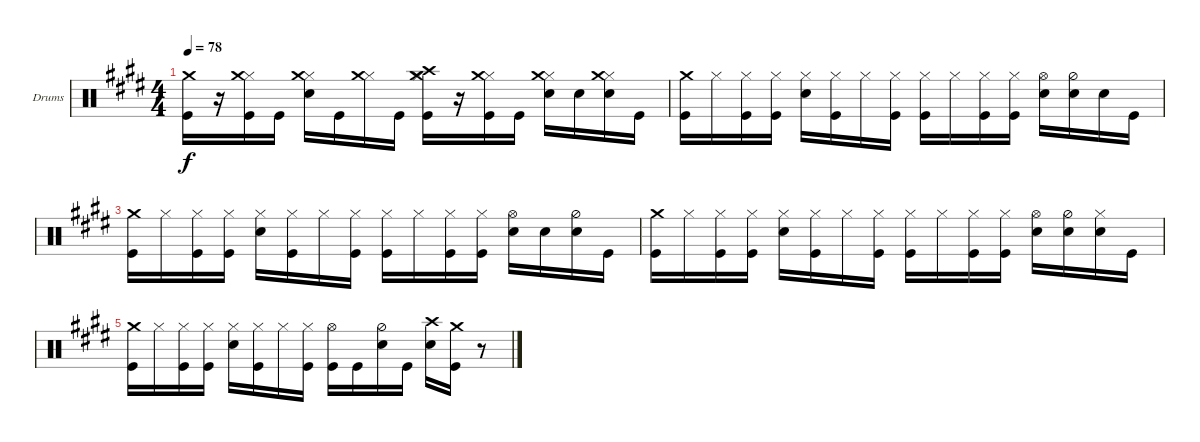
\bracketExtendMode nobrackets
\firstSystemTrackNameOrientation horizontal
\otherSystemsTrackNameOrientation horizontal
\defaultBarNumberDisplay FirstOfSystem
\track ("Drumkit" "Drums") {instrument percussion}
\staff {score}
\articulation defaults
\ts (4 4)
\tempo 78
\clef neutral
\ks c#minor
("Crash medium (hit)" "Kick (hit)").16{dy f} r.16 ("Hi-Hat (closed)" "Kick (hit)" "Crash medium (hit)").16 "Kick (hit)".16 ("Hi-Hat (closed)" "Snare (hit) 2" "Crash medium (hit)").16 "Kick (hit)".16 ("Hi-Hat (closed)" "Crash medium (hit)").16 "Kick (hit)".16 ("Hi-Hat (closed)" "Kick (hit)" "Crash high (hit)" "Crash medium (hit)").16 r.16 ("Hi-Hat (closed)" "Kick (hit)" "Crash medium (hit)").16 "Kick (hit)".16 ("Hi-Hat (closed)" "Snare (hit) 2" "Crash medium (hit)").16 "Snare (hit) 2".16 ("Hi-Hat (closed)" "Snare (hit) 2" "Crash medium (hit)").16 "Kick (hit)".16 |
("Crash medium (hit)" "Kick (hit)").16 "Hi-Hat (closed)".16 ("Hi-Hat (closed)" "Kick (hit)").16 ("Hi-Hat (closed)" "Kick (hit)").16 ("Hi-Hat (closed)" "Snare (hit) 2").16 ("Hi-Hat (closed)" "Kick (hit)").16 "Hi-Hat (closed)".16 ("Hi-Hat (closed)" "Kick (hit)").16 ("Hi-Hat (closed)" "Kick (hit)").16 "Hi-Hat (closed)".16 ("Hi-Hat (closed)" "Kick (hit)").16 ("Hi-Hat (closed)" "Kick (hit)").16 ("Hi-Hat (open)" "Snare (hit) 2").16 ("Hi-Hat (half)" "Snare (hit) 2").16 "Snare (hit) 2".16 "Kick (hit)".16 |
("Crash medium (hit)" "Kick (hit)").16 "Hi-Hat (closed)".16 ("Hi-Hat (closed)" "Kick (hit)").16 ("Hi-Hat (closed)" "Kick (hit)").16 ("Hi-Hat (closed)" "Snare (hit) 2").16 ("Hi-Hat (closed)" "Kick (hit)").16 "Hi-Hat (closed)".16 ("Hi-Hat (closed)" "Kick (hit)").16 ("Hi-Hat (closed)" "Kick (hit)").16 "Hi-Hat (closed)".16 ("Hi-Hat (closed)" "Kick (hit)").16 ("Hi-Hat (closed)" "Kick (hit)").16 ("Hi-Hat (open)" "Snare (hit) 2").16 "Snare (hit) 2".16 ("Hi-Hat (half)" "Snare (hit) 2").16 "Kick (hit)".16 |
("Crash medium (hit)" "Kick (hit)").16 "Hi-Hat (closed)".16 ("Hi-Hat (closed)" "Kick (hit)").16 ("Hi-Hat (closed)" "Kick (hit)").16 ("Hi-Hat (closed)" "Snare (hit) 2").16 ("Hi-Hat (closed)" "Kick (hit)").16 "Hi-Hat (closed)".16 ("Hi-Hat (closed)" "Kick (hit)").16 ("Hi-Hat (closed)" "Kick (hit)").16 "Hi-Hat (closed)".16 ("Hi-Hat (closed)" "Kick (hit)").16 ("Hi-Hat (closed)" "Kick (hit)").16 ("Hi-Hat (open)" "Snare (hit) 2").16 ("Hi-Hat (half)" "Snare (hit) 2").16 ("Hi-Hat (closed)" "Snare (hit) 2").16 "Kick (hit)".16 |
("Crash medium (hit)" "Kick (hit)").16 "Hi-Hat (closed)".16 ("Hi-Hat (closed)" "Kick (hit)").16 ("Hi-Hat (closed)" "Kick (hit)").16 ("Hi-Hat (closed)" "Snare (hit) 2").16 ("Hi-Hat (closed)" "Kick (hit)").16 "Hi-Hat (closed)".16 ("Hi-Hat (closed)" "Kick (hit)").16 ("Kick (hit)" "Hi-Hat (open)").16 "Kick (hit)".16 ("Hi-Hat (half)" "Snare (hit) 2").16 "Kick (hit)".16 ("Snare (hit) 2" "Crash high (hit)").16 ("Crash medium (hit)" "Kick (hit)").16 r.8
